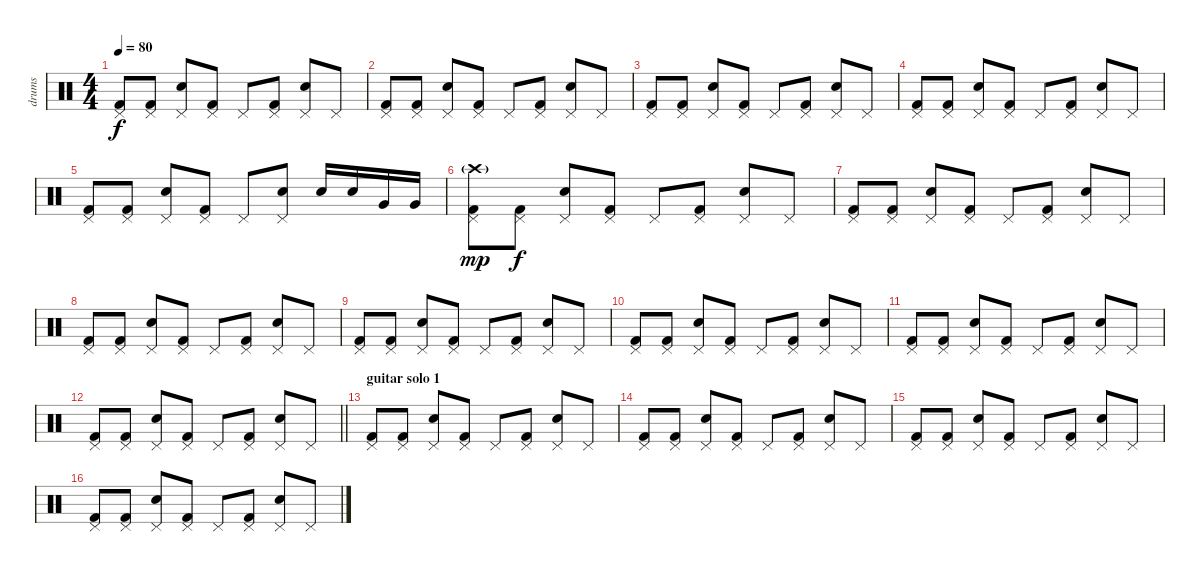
\track ("drums" "drums") {instrument percussion}
\staff {score}
\articulation defaults
\ts (4 4)
\tempo 80
\clef neutral
\ks c
("Kick (hit) 2" "Pedal Hi-Hat (hit)").8{dy f} ("Kick (hit) 2" "Pedal Hi-Hat (hit)").8 ("Electric Snare (hit)" "Pedal Hi-Hat (hit)").8 ("Kick (hit) 2" "Pedal Hi-Hat (hit)").8 "Pedal Hi-Hat (hit)".8 ("Kick (hit) 2" "Pedal Hi-Hat (hit)").8 ("Electric Snare (hit)" "Pedal Hi-Hat (hit)").8 "Pedal Hi-Hat (hit)".8 |
("Kick (hit) 2" "Pedal Hi-Hat (hit)").8 ("Kick (hit) 2" "Pedal Hi-Hat (hit)").8 ("Electric Snare (hit)" "Pedal Hi-Hat (hit)").8 ("Kick (hit) 2" "Pedal Hi-Hat (hit)").8 "Pedal Hi-Hat (hit)".8 ("Kick (hit) 2" "Pedal Hi-Hat (hit)").8 ("Electric Snare (hit)" "Pedal Hi-Hat (hit)").8 "Pedal Hi-Hat (hit)".8 |
("Kick (hit) 2" "Pedal Hi-Hat (hit)").8 ("Kick (hit) 2" "Pedal Hi-Hat (hit)").8 ("Electric Snare (hit)" "Pedal Hi-Hat (hit)").8 ("Kick (hit) 2" "Pedal Hi-Hat (hit)").8 "Pedal Hi-Hat (hit)".8 ("Kick (hit) 2" "Pedal Hi-Hat (hit)").8 ("Electric Snare (hit)" "Pedal Hi-Hat (hit)").8 "Pedal Hi-Hat (hit)".8 |
("Kick (hit) 2" "Pedal Hi-Hat (hit)").8 ("Kick (hit) 2" "Pedal Hi-Hat (hit)").8 ("Electric Snare (hit)" "Pedal Hi-Hat (hit)").8 ("Kick (hit) 2" "Pedal Hi-Hat (hit)").8 "Pedal Hi-Hat (hit)".8 ("Kick (hit) 2" "Pedal Hi-Hat (hit)").8 ("Electric Snare (hit)" "Pedal Hi-Hat (hit)").8 "Pedal Hi-Hat (hit)".8 |
("Kick (hit) 2" "Pedal Hi-Hat (hit)").8 ("Kick (hit) 2" "Pedal Hi-Hat (hit)").8 ("Electric Snare (hit)" "Pedal Hi-Hat (hit)").8 ("Kick (hit) 2" "Pedal Hi-Hat (hit)").8 "Pedal Hi-Hat (hit)".8 ("Electric Snare (hit)" "Pedal Hi-Hat (hit)").8 "Electric Snare (hit)".16 "Electric Snare (hit)".16 "Very Low Tom (hit)".16 "Very Low Tom (hit)".16 |
("Kick (hit) 2" "Pedal Hi-Hat (hit)" "Crash high (hit)"{g}).8{dy mp} ("Kick (hit) 2" "Pedal Hi-Hat (hit)").8{dy f} ("Electric Snare (hit)" "Pedal Hi-Hat (hit)").8 ("Kick (hit) 2" "Pedal Hi-Hat (hit)").8 "Pedal Hi-Hat (hit)".8 ("Kick (hit) 2" "Pedal Hi-Hat (hit)").8 ("Electric Snare (hit)" "Pedal Hi-Hat (hit)").8 "Pedal Hi-Hat (hit)".8 |
("Kick (hit) 2" "Pedal Hi-Hat (hit)").8 ("Kick (hit) 2" "Pedal Hi-Hat (hit)").8 ("Electric Snare (hit)" "Pedal Hi-Hat (hit)").8 ("Kick (hit) 2" "Pedal Hi-Hat (hit)").8 "Pedal Hi-Hat (hit)".8 ("Kick (hit) 2" "Pedal Hi-Hat (hit)").8 ("Electric Snare (hit)" "Pedal Hi-Hat (hit)").8 "Pedal Hi-Hat (hit)".8 |
("Kick (hit) 2" "Pedal Hi-Hat (hit)").8 ("Kick (hit) 2" "Pedal Hi-Hat (hit)").8 ("Electric Snare (hit)" "Pedal Hi-Hat (hit)").8 ("Kick (hit) 2" "Pedal Hi-Hat (hit)").8 "Pedal Hi-Hat (hit)".8 ("Kick (hit) 2" "Pedal Hi-Hat (hit)").8 ("Electric Snare (hit)" "Pedal Hi-Hat (hit)").8 "Pedal Hi-Hat (hit)".8 |
("Kick (hit) 2" "Pedal Hi-Hat (hit)").8 ("Kick (hit) 2" "Pedal Hi-Hat (hit)").8 ("Electric Snare (hit)" "Pedal Hi-Hat (hit)").8 ("Kick (hit) 2" "Pedal Hi-Hat (hit)").8 "Pedal Hi-Hat (hit)".8 ("Kick (hit) 2" "Pedal Hi-Hat (hit)").8 ("Electric Snare (hit)" "Pedal Hi-Hat (hit)").8 "Pedal Hi-Hat (hit)".8 |
("Kick (hit) 2" "Pedal Hi-Hat (hit)").8 ("Kick (hit) 2" "Pedal Hi-Hat (hit)").8 ("Electric Snare (hit)" "Pedal Hi-Hat (hit)").8 ("Kick (hit) 2" "Pedal Hi-Hat (hit)").8 "Pedal Hi-Hat (hit)".8 ("Kick (hit) 2" "Pedal Hi-Hat (hit)").8 ("Electric Snare (hit)" "Pedal Hi-Hat (hit)").8 "Pedal Hi-Hat (hit)".8 |
("Kick (hit) 2" "Pedal Hi-Hat (hit)").8 ("Kick (hit) 2" "Pedal Hi-Hat (hit)").8 ("Electric Snare (hit)" "Pedal Hi-Hat (hit)").8 ("Kick (hit) 2" "Pedal Hi-Hat (hit)").8 "Pedal Hi-Hat (hit)".8 ("Kick (hit) 2" "Pedal Hi-Hat (hit)").8 ("Electric Snare (hit)" "Pedal Hi-Hat (hit)").8 "Pedal Hi-Hat (hit)".8 |
\barLineRight lightlight
("Kick (hit) 2" "Pedal Hi-Hat (hit)").8 ("Kick (hit) 2" "Pedal Hi-Hat (hit)").8 ("Electric Snare (hit)" "Pedal Hi-Hat (hit)").8 ("Kick (hit) 2" "Pedal Hi-Hat (hit)").8 "Pedal Hi-Hat (hit)".8 ("Kick (hit) 2" "Pedal Hi-Hat (hit)").8 ("Electric Snare (hit)" "Pedal Hi-Hat (hit)").8 "Pedal Hi-Hat (hit)".8 |
\section ("" "guitar solo 1")
("Kick (hit) 2" "Pedal Hi-Hat (hit)").8 ("Kick (hit) 2" "Pedal Hi-Hat (hit)").8 ("Electric Snare (hit)" "Pedal Hi-Hat (hit)").8 ("Kick (hit) 2" "Pedal Hi-Hat (hit)").8 "Pedal Hi-Hat (hit)".8 ("Kick (hit) 2" "Pedal Hi-Hat (hit)").8 ("Electric Snare (hit)" "Pedal Hi-Hat (hit)").8 "Pedal Hi-Hat (hit)".8 |
("Kick (hit) 2" "Pedal Hi-Hat (hit)").8 ("Kick (hit) 2" "Pedal Hi-Hat (hit)").8 ("Electric Snare (hit)" "Pedal Hi-Hat (hit)").8 ("Kick (hit) 2" "Pedal Hi-Hat (hit)").8 "Pedal Hi-Hat (hit)".8 ("Kick (hit) 2" "Pedal Hi-Hat (hit)").8 ("Electric Snare (hit)" "Pedal Hi-Hat (hit)").8 "Pedal Hi-Hat (hit)".8 |
("Kick (hit) 2" "Pedal Hi-Hat (hit)").8 ("Kick (hit) 2" "Pedal Hi-Hat (hit)").8 ("Electric Snare (hit)" "Pedal Hi-Hat (hit)").8 ("Kick (hit) 2" "Pedal Hi-Hat (hit)").8 "Pedal Hi-Hat (hit)".8 ("Kick (hit) 2" "Pedal Hi-Hat (hit)").8 ("Electric Snare (hit)" "Pedal Hi-Hat (hit)").8 "Pedal Hi-Hat (hit)".8 |
("Kick (hit) 2" "Pedal Hi-Hat (hit)").8 ("Kick (hit) 2" "Pedal Hi-Hat (hit)").8 ("Electric Snare (hit)" "Pedal Hi-Hat (hit)").8 ("Kick (hit) 2" "Pedal Hi-Hat (hit)").8 "Pedal Hi-Hat (hit)".8 ("Kick (hit) 2" "Pedal Hi-Hat (hit)").8 ("Electric Snare (hit)" "Pedal Hi-Hat (hit)").8 "Pedal Hi-Hat (hit)".8
